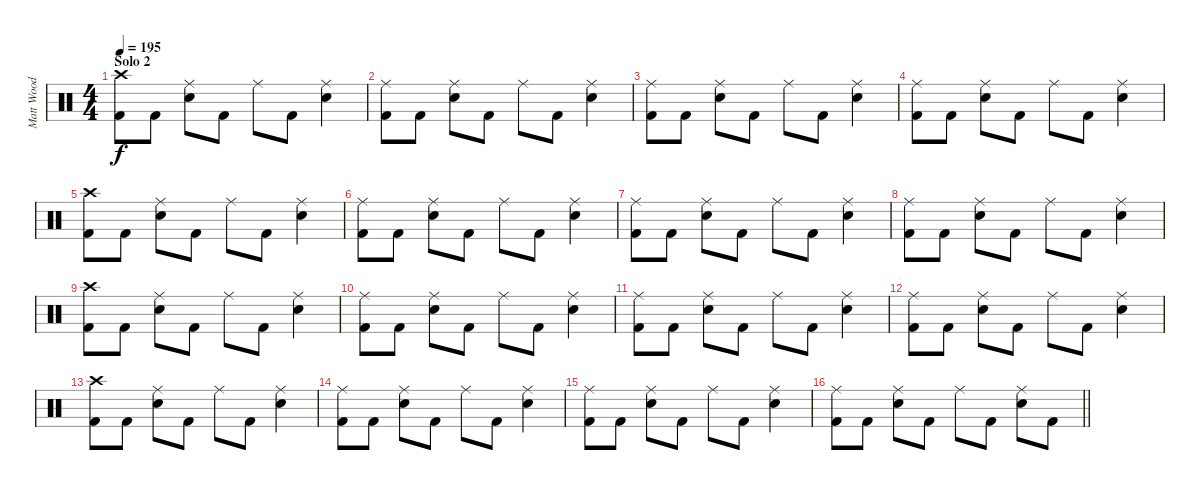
\track ("Matt Wood" "Matt Wood") {instrument percussion}
\staff {score}
\articulation defaults
\ts (4 4)
\section ("" "Solo 2")
\tempo 195
\clef neutral
\ks c
("Crash high (hit)" "Kick (hit) 2").8{dy f} "Kick (hit) 2".8 ("Ride (middle)" "Snare (hit) 2").8 "Kick (hit) 2".8 "Ride (middle)".8 "Kick (hit) 2".8 ("Ride (middle)" "Snare (hit) 2").4 |
("Ride (middle)" "Kick (hit) 2").8 "Kick (hit) 2".8 ("Ride (middle)" "Snare (hit) 2").8 "Kick (hit) 2".8 "Ride (middle)".8 "Kick (hit) 2".8 ("Ride (middle)" "Snare (hit) 2").4 |
("Ride (middle)" "Kick (hit) 2").8 "Kick (hit) 2".8 ("Ride (middle)" "Snare (hit) 2").8 "Kick (hit) 2".8 "Ride (middle)".8 "Kick (hit) 2".8 ("Ride (middle)" "Snare (hit) 2").4 |
("Ride (middle)" "Kick (hit) 2").8 "Kick (hit) 2".8 ("Ride (middle)" "Snare (hit) 2").8 "Kick (hit) 2".8 "Ride (middle)".8 "Kick (hit) 2".8 ("Ride (middle)" "Snare (hit) 2").4 |
("Crash high (hit)" "Kick (hit) 2").8 "Kick (hit) 2".8 ("Ride (middle)" "Snare (hit) 2").8 "Kick (hit) 2".8 "Ride (middle)".8 "Kick (hit) 2".8 ("Ride (middle)" "Snare (hit) 2").4 |
("Ride (middle)" "Kick (hit) 2").8 "Kick (hit) 2".8 ("Ride (middle)" "Snare (hit) 2").8 "Kick (hit) 2".8 "Ride (middle)".8 "Kick (hit) 2".8 ("Ride (middle)" "Snare (hit) 2").4 |
("Ride (middle)" "Kick (hit) 2").8 "Kick (hit) 2".8 ("Ride (middle)" "Snare (hit) 2").8 "Kick (hit) 2".8 "Ride (middle)".8 "Kick (hit) 2".8 ("Ride (middle)" "Snare (hit) 2").4 |
("Ride (middle)" "Kick (hit) 2").8 "Kick (hit) 2".8 ("Ride (middle)" "Snare (hit) 2").8 "Kick (hit) 2".8 "Ride (middle)".8 "Kick (hit) 2".8 ("Ride (middle)" "Snare (hit) 2").4 |
("Crash high (hit)" "Kick (hit) 2").8 "Kick (hit) 2".8 ("Ride (middle)" "Snare (hit) 2").8 "Kick (hit) 2".8 "Ride (middle)".8 "Kick (hit) 2".8 ("Ride (middle)" "Snare (hit) 2").4 |
("Ride (middle)" "Kick (hit) 2").8 "Kick (hit) 2".8 ("Ride (middle)" "Snare (hit) 2").8 "Kick (hit) 2".8 "Ride (middle)".8 "Kick (hit) 2".8 ("Ride (middle)" "Snare (hit) 2").4 |
("Ride (middle)" "Kick (hit) 2").8 "Kick (hit) 2".8 ("Ride (middle)" "Snare (hit) 2").8 "Kick (hit) 2".8 "Ride (middle)".8 "Kick (hit) 2".8 ("Ride (middle)" "Snare (hit) 2").4 |
("Ride (middle)" "Kick (hit) 2").8 "Kick (hit) 2".8 ("Ride (middle)" "Snare (hit) 2").8 "Kick (hit) 2".8 "Ride (middle)".8 "Kick (hit) 2".8 ("Ride (middle)" "Snare (hit) 2").4 |
("Crash high (hit)" "Kick (hit) 2").8 "Kick (hit) 2".8 ("Ride (middle)" "Snare (hit) 2").8 "Kick (hit) 2".8 "Ride (middle)".8 "Kick (hit) 2".8 ("Ride (middle)" "Snare (hit) 2").4 |
("Ride (middle)" "Kick (hit) 2").8 "Kick (hit) 2".8 ("Ride (middle)" "Snare (hit) 2").8 "Kick (hit) 2".8 "Ride (middle)".8 "Kick (hit) 2".8 ("Ride (middle)" "Snare (hit) 2").4 |
("Ride (middle)" "Kick (hit) 2").8 "Kick (hit) 2".8 ("Ride (middle)" "Snare (hit) 2").8 "Kick (hit) 2".8 "Ride (middle)".8 "Kick (hit) 2".8 ("Ride (middle)" "Snare (hit) 2").4 |
\barLineRight lightlight
("Ride (middle)" "Kick (hit) 2").8 "Kick (hit) 2".8 ("Ride (middle)" "Snare (hit) 2").8 "Kick (hit) 2".8 "Ride (middle)".8 "Kick (hit) 2".8 ("Ride (middle)" "Snare (hit) 2").8 "Kick (hit) 2".8
